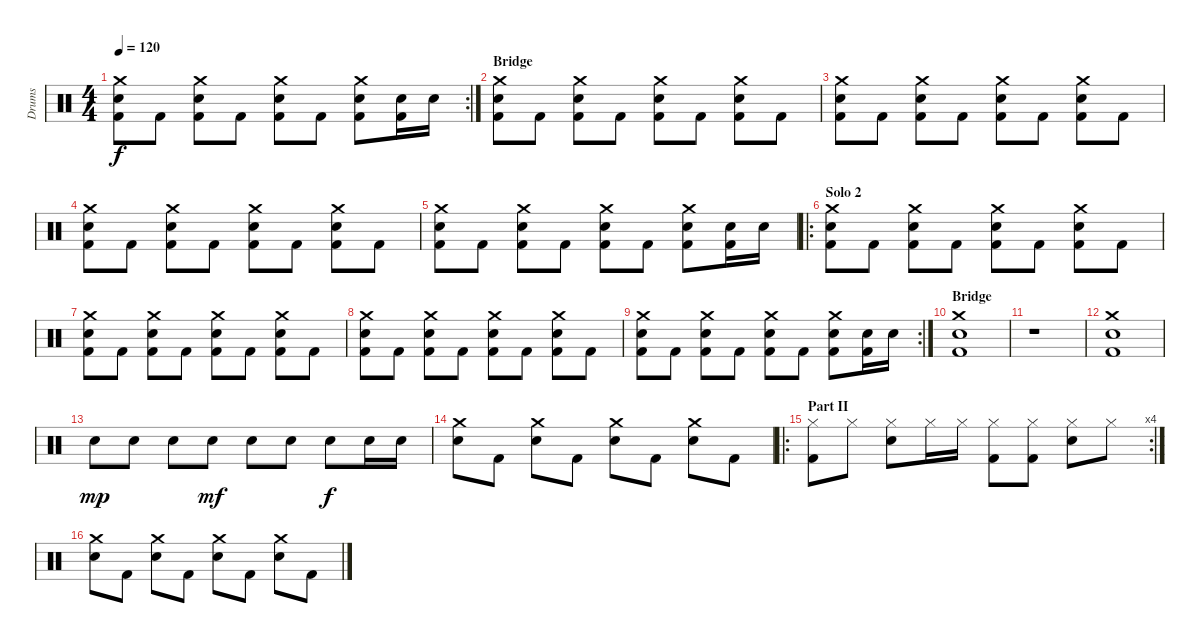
\track ("Drums" "Drums") {instrument percussion}
\staff {score}
\articulation defaults
\rc 2
\ts (4 4)
\tempo 120
\clef neutral
\ks c
("Crash medium (hit)" "Snare (hit) 2" "Kick (hit) 2").8{dy f} "Kick (hit) 2".8 ("Crash medium (hit)" "Snare (hit) 2" "Kick (hit) 2").8 "Kick (hit) 2".8 ("Crash medium (hit)" "Snare (hit) 2" "Kick (hit) 2").8 "Kick (hit) 2".8 ("Crash medium (hit)" "Snare (hit) 2" "Kick (hit) 2").8 ("Snare (hit) 2" "Kick (hit) 2").16 "Snare (hit) 2".16 |
\section ("" "Bridge")
("Crash medium (hit)" "Snare (hit) 2" "Kick (hit) 2").8 "Kick (hit) 2".8 ("Crash medium (hit)" "Snare (hit) 2" "Kick (hit) 2").8 "Kick (hit) 2".8 ("Crash medium (hit)" "Snare (hit) 2" "Kick (hit) 2").8 "Kick (hit) 2".8 ("Crash medium (hit)" "Snare (hit) 2" "Kick (hit) 2").8 "Kick (hit) 2".8 |
("Crash medium (hit)" "Snare (hit) 2" "Kick (hit) 2").8 "Kick (hit) 2".8 ("Crash medium (hit)" "Snare (hit) 2" "Kick (hit) 2").8 "Kick (hit) 2".8 ("Crash medium (hit)" "Snare (hit) 2" "Kick (hit) 2").8 "Kick (hit) 2".8 ("Crash medium (hit)" "Snare (hit) 2" "Kick (hit) 2").8 "Kick (hit) 2".8 |
("Crash medium (hit)" "Snare (hit) 2" "Kick (hit) 2").8 "Kick (hit) 2".8 ("Crash medium (hit)" "Snare (hit) 2" "Kick (hit) 2").8 "Kick (hit) 2".8 ("Crash medium (hit)" "Snare (hit) 2" "Kick (hit) 2").8 "Kick (hit) 2".8 ("Crash medium (hit)" "Snare (hit) 2" "Kick (hit) 2").8 "Kick (hit) 2".8 |
("Crash medium (hit)" "Snare (hit) 2" "Kick (hit) 2").8 "Kick (hit) 2".8 ("Crash medium (hit)" "Snare (hit) 2" "Kick (hit) 2").8 "Kick (hit) 2".8 ("Crash medium (hit)" "Snare (hit) 2" "Kick (hit) 2").8 "Kick (hit) 2".8 ("Crash medium (hit)" "Snare (hit) 2" "Kick (hit) 2").8 ("Snare (hit) 2" "Kick (hit) 2").16 "Snare (hit) 2".16 |
\ro
\section ("" "Solo 2")
("Crash medium (hit)" "Snare (hit) 2" "Kick (hit) 2").8 "Kick (hit) 2".8 ("Crash medium (hit)" "Snare (hit) 2" "Kick (hit) 2").8 "Kick (hit) 2".8 ("Crash medium (hit)" "Snare (hit) 2" "Kick (hit) 2").8 "Kick (hit) 2".8 ("Crash medium (hit)" "Snare (hit) 2" "Kick (hit) 2").8 "Kick (hit) 2".8 |
("Crash medium (hit)" "Snare (hit) 2" "Kick (hit) 2").8 "Kick (hit) 2".8 ("Crash medium (hit)" "Snare (hit) 2" "Kick (hit) 2").8 "Kick (hit) 2".8 ("Crash medium (hit)" "Snare (hit) 2" "Kick (hit) 2").8 "Kick (hit) 2".8 ("Crash medium (hit)" "Snare (hit) 2" "Kick (hit) 2").8 "Kick (hit) 2".8 |
("Crash medium (hit)" "Snare (hit) 2" "Kick (hit) 2").8 "Kick (hit) 2".8 ("Crash medium (hit)" "Snare (hit) 2" "Kick (hit) 2").8 "Kick (hit) 2".8 ("Crash medium (hit)" "Snare (hit) 2" "Kick (hit) 2").8 "Kick (hit) 2".8 ("Crash medium (hit)" "Snare (hit) 2" "Kick (hit) 2").8 "Kick (hit) 2".8 |
\rc 2
("Crash medium (hit)" "Snare (hit) 2" "Kick (hit) 2").8 "Kick (hit) 2".8 ("Crash medium (hit)" "Snare (hit) 2" "Kick (hit) 2").8 "Kick (hit) 2".8 ("Crash medium (hit)" "Snare (hit) 2" "Kick (hit) 2").8 "Kick (hit) 2".8 ("Crash medium (hit)" "Snare (hit) 2" "Kick (hit) 2").8 ("Snare (hit) 2" "Kick (hit) 2").16 "Snare (hit) 2".16 |
\section ("" "Bridge")
("Crash medium (hit)" "Snare (hit) 2" "Kick (hit) 2").1 |
r.1 |
("Crash medium (hit)" "Snare (hit) 2" "Kick (hit) 2").1 |
"Snare (hit) 2".8{dy mp} "Snare (hit) 2".8 "Snare (hit) 2".8 "Snare (hit) 2".8{dy mf} "Snare (hit) 2".8 "Snare (hit) 2".8 "Snare (hit) 2".8{dy f} "Snare (hit) 2".16 "Snare (hit) 2".16 |
("Crash medium (hit)" "Snare (hit) 2").8 "Kick (hit) 2".8 ("Crash medium (hit)" "Snare (hit) 2").8 "Kick (hit) 2".8 ("Crash medium (hit)" "Snare (hit) 2").8 "Kick (hit) 2".8 ("Crash medium (hit)" "Snare (hit) 2").8 "Kick (hit) 2".8 |
\ro
\rc 4
\section ("" "Part II")
("Hi-Hat (closed)" "Kick (hit) 2").8 "Hi-Hat (closed)".8 ("Hi-Hat (closed)" "Snare (hit) 2").8 "Hi-Hat (closed)".16 "Hi-Hat (closed)".16 ("Hi-Hat (closed)" "Kick (hit) 2").8 ("Hi-Hat (closed)" "Kick (hit) 2").8 ("Hi-Hat (closed)" "Snare (hit) 2").8 "Hi-Hat (closed)".8 |
("Crash medium (hit)" "Snare (hit) 2").8 "Kick (hit) 2".8 ("Crash medium (hit)" "Snare (hit) 2").8 "Kick (hit) 2".8 ("Crash medium (hit)" "Snare (hit) 2").8 "Kick (hit) 2".8 ("Crash medium (hit)" "Snare (hit) 2").8 "Kick (hit) 2".8
